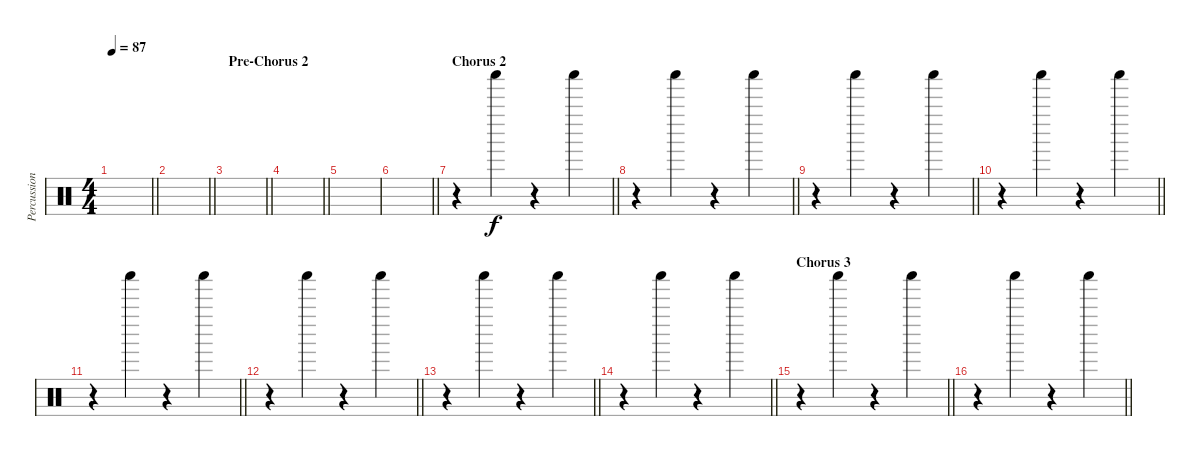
\track ("Percussion" "Percussion") {instrument percussion}
\staff {score}
\articulation defaults
\ts (4 4)
\tempo 87
\clef neutral
\barLineRight lightlight
\ks c
|
\barLineRight lightlight
|
\section ("" "Pre-Chorus 2")
\barLineRight lightlight
|
\barLineRight lightlight
|
|
\barLineRight lightlight
|
\section ("" "Chorus 2")
\barLineRight lightlight
r.4 "Shaker (hit)".4 r.4 "Shaker (hit)".4 |
\barLineRight lightlight
r.4 "Shaker (hit)".4 r.4 "Shaker (hit)".4 |
\barLineRight lightlight
r.4 "Shaker (hit)".4 r.4 "Shaker (hit)".4 |
\barLineRight lightlight
r.4 "Shaker (hit)".4 r.4 "Shaker (hit)".4 |
\barLineRight lightlight
r.4 "Shaker (hit)".4 r.4 "Shaker (hit)".4 |
\barLineRight lightlight
r.4 "Shaker (hit)".4 r.4 "Shaker (hit)".4 |
\barLineRight lightlight
r.4 "Shaker (hit)".4 r.4 "Shaker (hit)".4 |
\barLineRight lightlight
r.4 "Shaker (hit)".4 r.4 "Shaker (hit)".4 |
\section ("" "Chorus 3")
\barLineRight lightlight
r.4 "Shaker (hit)".4 r.4 "Shaker (hit)".4 |
\barLineRight lightlight
r.4 "Shaker (hit)".4 r.4 "Shaker (hit)".4
